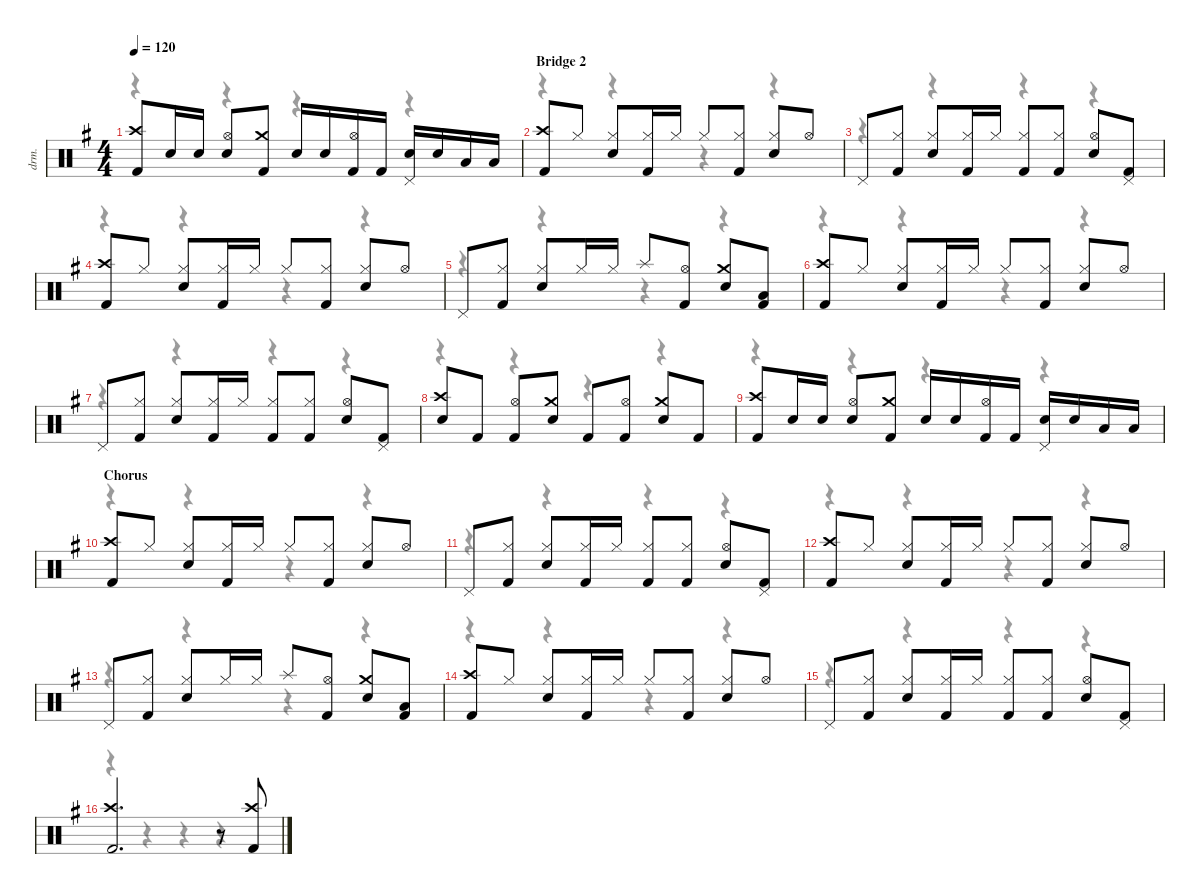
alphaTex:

\defaultSystemsLayout 4
\hideDynamics
\bracketExtendMode nobrackets
\track ("Drums" "drm.") {instrument percussion}
\staff {score}
\articulation defaults
\voice
\ts (4 4)
\tempo 120
\clef neutral
\ks g
("Kick (hit) 2"{acc forcenatural} "Crash high (hit)"{acc forcenatural}).8{dy mf} "Snare (hit) 2"{acc forcenatural}.16 "Snare (hit) 2"{acc forcenatural}.16 ("Snare (hit) 2"{acc forcenatural} "Hi-Hat (open)"{acc forcenatural}).8 ("Kick (hit) 2"{acc forcenatural} "Crash medium (hit)"{acc forcenatural}).8 "Snare (hit) 2"{acc forcenatural}.16 "Snare (hit) 2"{acc forcenatural}.16 ("Kick (hit) 2"{acc forcenatural} "Hi-Hat (open)"{acc forcenatural}).16 "Kick (hit) 2"{acc forcenatural}.16 ("Snare (hit) 2"{acc forcenatural} "Pedal Hi-Hat (hit)"{acc forcenatural}).16 "Snare (hit) 2"{acc forcenatural}.16 "Low Tom (hit)"{acc forcenatural}.16 "Low Tom (hit)"{acc forcenatural}.16 |
\section ("" "Bridge 2")
("Kick (hit) 2"{acc forcenatural} "Crash high (hit)"{acc forcenatural}).8 "Hi-Hat (closed)"{acc forcenatural}.8 ("Snare (hit) 2"{acc forcenatural} "Hi-Hat (closed)"{acc forcenatural}).8 ("Kick (hit) 2"{acc forcenatural} "Hi-Hat (closed)"{acc forcenatural}).16 "Hi-Hat (closed)"{acc forcenatural}.16 "Hi-Hat (closed)"{acc forcenatural}.8 ("Kick (hit) 2"{acc forcenatural} "Hi-Hat (closed)"{acc forcenatural}).8 ("Snare (hit) 2"{acc forcenatural} "Hi-Hat (closed)"{acc forcenatural}).8 "Hi-Hat (open)"{acc forcenatural}.8 |
"Pedal Hi-Hat (hit)"{acc forcenatural}.8 ("Kick (hit) 2"{acc forcenatural} "Hi-Hat (closed)"{acc forcenatural}).8 ("Snare (hit) 2"{acc forcenatural} "Hi-Hat (closed)"{acc forcenatural}).8 ("Kick (hit) 2"{acc forcenatural} "Hi-Hat (closed)"{acc forcenatural}).16 "Hi-Hat (closed)"{acc forcenatural}.16 ("Kick (hit) 2"{acc forcenatural} "Hi-Hat (closed)"{acc forcenatural}).8 ("Kick (hit) 2"{acc forcenatural} "Hi-Hat (closed)"{acc forcenatural}).8 ("Snare (hit) 2"{acc forcenatural} "Hi-Hat (open)"{acc forcenatural}).8 ("Kick (hit) 2"{acc forcenatural} "Pedal Hi-Hat (hit)"{acc forcenatural}).8 |
("Kick (hit) 2"{acc forcenatural} "Crash high (hit)"{acc forcenatural}).8 "Hi-Hat (closed)"{acc forcenatural}.8 ("Snare (hit) 2"{acc forcenatural} "Hi-Hat (closed)"{acc forcenatural}).8 ("Kick (hit) 2"{acc forcenatural} "Hi-Hat (closed)"{acc forcenatural}).16 "Hi-Hat (closed)"{acc forcenatural}.16 "Hi-Hat (closed)"{acc forcenatural}.8 ("Kick (hit) 2"{acc forcenatural} "Hi-Hat (closed)"{acc forcenatural}).8 ("Snare (hit) 2"{acc forcenatural} "Hi-Hat (closed)"{acc forcenatural}).8 "Hi-Hat (open)"{acc forcenatural}.8 |
"Pedal Hi-Hat (hit)"{acc forcenatural}.8 ("Kick (hit) 2"{acc forcenatural} "Hi-Hat (closed)"{acc forcenatural}).8 ("Snare (hit) 2"{acc forcenatural} "Hi-Hat (closed)"{acc forcenatural}).8 "Hi-Hat (closed)"{acc forcenatural}.16 "Hi-Hat (closed)"{acc forcenatural}.16 "Splash (hit)"{acc forcenatural}.8 ("Kick (hit) 2"{acc forcenatural} "Hi-Hat (open)"{acc forcenatural}).8 ("Snare (hit) 2"{acc forcenatural} "Crash medium (hit)"{acc forcenatural}).8 ("Kick (hit) 2"{acc forcenatural} "Low Tom (hit)"{acc forcenatural}).8 |
("Kick (hit) 2"{acc forcenatural} "Crash high (hit)"{acc forcenatural}).8 "Hi-Hat (closed)"{acc forcenatural}.8 ("Snare (hit) 2"{acc forcenatural} "Hi-Hat (closed)"{acc forcenatural}).8 ("Kick (hit) 2"{acc forcenatural} "Hi-Hat (closed)"{acc forcenatural}).16 "Hi-Hat (closed)"{acc forcenatural}.16 "Hi-Hat (closed)"{acc forcenatural}.8 ("Kick (hit) 2"{acc forcenatural} "Hi-Hat (closed)"{acc forcenatural}).8 ("Snare (hit) 2"{acc forcenatural} "Hi-Hat (closed)"{acc forcenatural}).8 "Hi-Hat (open)"{acc forcenatural}.8 |
"Pedal Hi-Hat (hit)"{acc forcenatural}.8 ("Kick (hit) 2"{acc forcenatural} "Hi-Hat (closed)"{acc forcenatural}).8 ("Snare (hit) 2"{acc forcenatural} "Hi-Hat (closed)"{acc forcenatural}).8 ("Kick (hit) 2"{acc forcenatural} "Hi-Hat (closed)"{acc forcenatural}).16 "Hi-Hat (closed)"{acc forcenatural}.16 ("Kick (hit) 2"{acc forcenatural} "Hi-Hat (closed)"{acc forcenatural}).8 ("Kick (hit) 2"{acc forcenatural} "Hi-Hat (closed)"{acc forcenatural}).8 ("Snare (hit) 2"{acc forcenatural} "Hi-Hat (open)"{acc forcenatural}).8 ("Kick (hit) 2"{acc forcenatural} "Pedal Hi-Hat (hit)"{acc forcenatural}).8 |
("Snare (hit) 2"{acc forcenatural} "Crash high (hit)"{acc forcenatural}).8 "Kick (hit) 2"{acc forcenatural}.8 ("Kick (hit) 2"{acc forcenatural} "Hi-Hat (open)"{acc forcenatural}).8 ("Snare (hit) 2"{acc forcenatural} "Crash medium (hit)"{acc forcenatural}).8 "Kick (hit) 2"{acc forcenatural}.8 ("Kick (hit) 2"{acc forcenatural} "Hi-Hat (open)"{acc forcenatural}).8 ("Snare (hit) 2"{acc forcenatural} "Crash medium (hit)"{acc forcenatural}).8 "Kick (hit) 2"{acc forcenatural}.8 |
("Kick (hit) 2"{acc forcenatural} "Crash high (hit)"{acc forcenatural}).8 "Snare (hit) 2"{acc forcenatural}.16 "Snare (hit) 2"{acc forcenatural}.16 ("Snare (hit) 2"{acc forcenatural} "Hi-Hat (open)"{acc forcenatural}).8 ("Kick (hit) 2"{acc forcenatural} "Crash medium (hit)"{acc forcenatural}).8 "Snare (hit) 2"{acc forcenatural}.16 "Snare (hit) 2"{acc forcenatural}.16 ("Kick (hit) 2"{acc forcenatural} "Hi-Hat (open)"{acc forcenatural}).16 "Kick (hit) 2"{acc forcenatural}.16 ("Snare (hit) 2"{acc forcenatural} "Pedal Hi-Hat (hit)"{acc forcenatural}).16 "Snare (hit) 2"{acc forcenatural}.16 "Low Tom (hit)"{acc forcenatural}.16 "Low Tom (hit)"{acc forcenatural}.16 |
\section ("" "Chorus")
("Kick (hit) 2"{acc forcenatural} "Crash high (hit)"{acc forcenatural}).8 "Hi-Hat (closed)"{acc forcenatural}.8 ("Snare (hit) 2"{acc forcenatural} "Hi-Hat (closed)"{acc forcenatural}).8 ("Kick (hit) 2"{acc forcenatural} "Hi-Hat (closed)"{acc forcenatural}).16 "Hi-Hat (closed)"{acc forcenatural}.16 "Hi-Hat (closed)"{acc forcenatural}.8 ("Kick (hit) 2"{acc forcenatural} "Hi-Hat (closed)"{acc forcenatural}).8 ("Snare (hit) 2"{acc forcenatural} "Hi-Hat (closed)"{acc forcenatural}).8 "Hi-Hat (open)"{acc forcenatural}.8 |
"Pedal Hi-Hat (hit)"{acc forcenatural}.8 ("Kick (hit) 2"{acc forcenatural} "Hi-Hat (closed)"{acc forcenatural}).8 ("Snare (hit) 2"{acc forcenatural} "Hi-Hat (closed)"{acc forcenatural}).8 ("Kick (hit) 2"{acc forcenatural} "Hi-Hat (closed)"{acc forcenatural}).16 "Hi-Hat (closed)"{acc forcenatural}.16 ("Kick (hit) 2"{acc forcenatural} "Hi-Hat (closed)"{acc forcenatural}).8 ("Kick (hit) 2"{acc forcenatural} "Hi-Hat (closed)"{acc forcenatural}).8 ("Snare (hit) 2"{acc forcenatural} "Hi-Hat (open)"{acc forcenatural}).8 ("Kick (hit) 2"{acc forcenatural} "Pedal Hi-Hat (hit)"{acc forcenatural}).8 |
("Kick (hit) 2"{acc forcenatural} "Crash high (hit)"{acc forcenatural}).8 "Hi-Hat (closed)"{acc forcenatural}.8 ("Snare (hit) 2"{acc forcenatural} "Hi-Hat (closed)"{acc forcenatural}).8 ("Kick (hit) 2"{acc forcenatural} "Hi-Hat (closed)"{acc forcenatural}).16 "Hi-Hat (closed)"{acc forcenatural}.16 "Hi-Hat (closed)"{acc forcenatural}.8 ("Kick (hit) 2"{acc forcenatural} "Hi-Hat (closed)"{acc forcenatural}).8 ("Snare (hit) 2"{acc forcenatural} "Hi-Hat (closed)"{acc forcenatural}).8 "Hi-Hat (open)"{acc forcenatural}.8 |
"Pedal Hi-Hat (hit)"{acc forcenatural}.8 ("Kick (hit) 2"{acc forcenatural} "Hi-Hat (closed)"{acc forcenatural}).8 ("Snare (hit) 2"{acc forcenatural} "Hi-Hat (closed)"{acc forcenatural}).8 "Hi-Hat (closed)"{acc forcenatural}.16 "Hi-Hat (closed)"{acc forcenatural}.16 "Splash (hit)"{acc forcenatural}.8 ("Kick (hit) 2"{acc forcenatural} "Hi-Hat (open)"{acc forcenatural}).8 ("Snare (hit) 2"{acc forcenatural} "Crash medium (hit)"{acc forcenatural}).8 ("Kick (hit) 2"{acc forcenatural} "Low Tom (hit)"{acc forcenatural}).8 |
("Kick (hit) 2"{acc forcenatural} "Crash high (hit)"{acc forcenatural}).8 "Hi-Hat (closed)"{acc forcenatural}.8 ("Snare (hit) 2"{acc forcenatural} "Hi-Hat (closed)"{acc forcenatural}).8 ("Kick (hit) 2"{acc forcenatural} "Hi-Hat (closed)"{acc forcenatural}).16 "Hi-Hat (closed)"{acc forcenatural}.16 "Hi-Hat (closed)"{acc forcenatural}.8 ("Kick (hit) 2"{acc forcenatural} "Hi-Hat (closed)"{acc forcenatural}).8 ("Snare (hit) 2"{acc forcenatural} "Hi-Hat (closed)"{acc forcenatural}).8 "Hi-Hat (open)"{acc forcenatural}.8 |
"Pedal Hi-Hat (hit)"{acc forcenatural}.8 ("Kick (hit) 2"{acc forcenatural} "Hi-Hat (closed)"{acc forcenatural}).8 ("Snare (hit) 2"{acc forcenatural} "Hi-Hat (closed)"{acc forcenatural}).8 ("Kick (hit) 2"{acc forcenatural} "Hi-Hat (closed)"{acc forcenatural}).16 "Hi-Hat (closed)"{acc forcenatural}.16 ("Kick (hit) 2"{acc forcenatural} "Hi-Hat (closed)"{acc forcenatural}).8 ("Kick (hit) 2"{acc forcenatural} "Hi-Hat (closed)"{acc forcenatural}).8 ("Snare (hit) 2"{acc forcenatural} "Hi-Hat (open)"{acc forcenatural}).8 ("Kick (hit) 2"{acc forcenatural} "Pedal Hi-Hat (hit)"{acc forcenatural}).8 |
("Crash high (hit)"{acc forcenatural} "Kick (hit) 2"{acc forcenatural}).2{d} r.8 ("Crash high (hit)"{acc forcenatural} "Kick (hit) 2"{acc forcenatural}).8
\voice
\clef neutral
\ottava regular
\simile none
\ks g
r.4{dy mf} r.4 r.4 r.4 |
r.4 r.4 r.4 r.4 |
r.4 r.4 r.4 r.4 |
r.4 r.4 r.4 r.4 |
r.4 r.4 r.4 r.4 |
r.4 r.4 r.4 r.4 |
r.4 r.4 r.4 r.4 |
r.4 r.4 r.4 r.4 |
r.4 r.4 r.4 r.4 |
r.4 r.4 r.4 r.4 |
r.4 r.4 r.4 r.4 |
r.4 r.4 r.4 r.4 |
r.4 r.4 r.4 r.4 |
r.4 r.4 r.4 r.4 |
r.4 r.4 r.4 r.4 |
r.4 r.4 r.4 r.4
